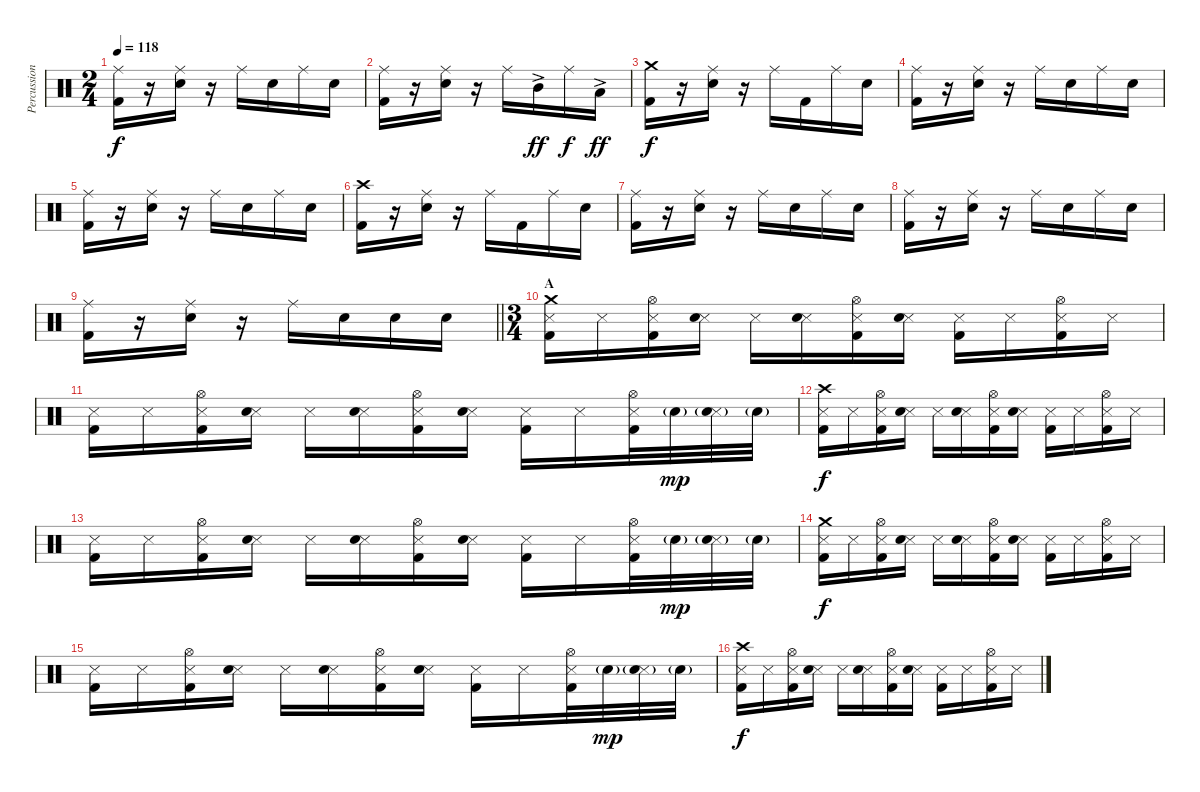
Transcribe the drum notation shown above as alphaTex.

\track ("Percussion" "Percussion") {instrument percussion}
\staff {score}
\articulation defaults
\ts (2 4)
\tempo 118
\clef neutral
\ks c
("Ride (middle)" "Kick (hit) 2").16{dy f} r.16 ("Ride (middle)" "Electric Snare (hit)").16 r.16 "Ride (middle)".16 "Electric Snare (hit)".16 "Ride (middle)".16 "Electric Snare (hit)".16 |
("Ride (middle)" "Kick (hit) 2").16 r.16 ("Ride (middle)" "Electric Snare (hit)").16 r.16 "Ride (middle)".16 "Mid Tom (hit)"{ac}.16{dy ff} "Ride (middle)".16{dy f} "Low Tom (hit)"{ac}.16{dy ff} |
("Crash medium (hit)" "Kick (hit) 2").16{dy f} r.16 ("Ride (middle)" "Electric Snare (hit)").16 r.16 "Ride (middle)".16 "Kick (hit) 2".16 "Ride (middle)".16 "Electric Snare (hit)".16 |
("Ride (middle)" "Kick (hit) 2").16 r.16 ("Ride (middle)" "Electric Snare (hit)").16 r.16 "Ride (middle)".16 "Electric Snare (hit)".16 "Ride (middle)".16 "Electric Snare (hit)".16 |
("Ride (middle)" "Kick (hit) 2").16 r.16 ("Ride (middle)" "Electric Snare (hit)").16 r.16 "Ride (middle)".16 "Electric Snare (hit)".16 "Ride (middle)".16 "Electric Snare (hit)".16 |
("Crash high (hit)" "Kick (hit) 2").16 r.16 ("Ride (middle)" "Electric Snare (hit)").16 r.16 "Ride (middle)".16 "Kick (hit) 2".16 "Ride (middle)".16 "Electric Snare (hit)".16 |
("Ride (middle)" "Kick (hit) 2").16 r.16 ("Ride (middle)" "Electric Snare (hit)").16 r.16 "Ride (middle)".16 "Electric Snare (hit)".16 "Ride (middle)".16 "Electric Snare (hit)".16 |
("Ride (middle)" "Kick (hit) 2").16 r.16 ("Ride (middle)" "Electric Snare (hit)").16 r.16 "Ride (middle)".16 "Electric Snare (hit)".16 "Ride (middle)".16 "Electric Snare (hit)".16 |
\barLineRight lightlight
("Ride (middle)" "Kick (hit) 2").16 r.16 ("Ride (middle)" "Electric Snare (hit)").16 r.16 "Ride (middle)".16 "Electric Snare (hit)".16 "Electric Snare (hit)".16 "Electric Snare (hit)".16 |
\ts (3 4)
\section ("" "A")
("Crash medium (hit)" "Snare (side stick) 3" "Kick (hit) 2").16 "Snare (side stick) 3".16 ("Hi-Hat (open)" "Snare (side stick) 3" "Kick (hit) 2").16 ("Snare (side stick) 3" "Electric Snare (hit)").16 "Snare (side stick) 3".16 ("Snare (side stick) 3" "Electric Snare (hit)").16 ("Hi-Hat (open)" "Snare (side stick) 3" "Kick (hit) 2").16 ("Snare (side stick) 3" "Electric Snare (hit)").16 ("Snare (side stick) 3" "Kick (hit) 2").16 "Snare (side stick) 3".16 ("Hi-Hat (open)" "Snare (side stick) 3" "Kick (hit) 2").16 "Snare (side stick) 3".16 |
("Snare (side stick) 3" "Kick (hit) 2").16 "Snare (side stick) 3".16 ("Hi-Hat (open)" "Snare (side stick) 3" "Kick (hit) 2").16 ("Snare (side stick) 3" "Electric Snare (hit)").16 "Snare (side stick) 3".16 ("Snare (side stick) 3" "Electric Snare (hit)").16 ("Hi-Hat (open)" "Snare (side stick) 3" "Kick (hit) 2").16 ("Snare (side stick) 3" "Electric Snare (hit)").16 ("Snare (side stick) 3" "Kick (hit) 2").16 "Snare (side stick) 3".16 ("Hi-Hat (open)" "Snare (side stick) 3" "Kick (hit) 2").32 "Electric Snare (hit)"{g}.32{dy mp} ("Snare (side stick) 3" "Electric Snare (hit)"{g}).32 "Electric Snare (hit)"{g}.32 |
("Crash high (hit)" "Snare (side stick) 3" "Kick (hit) 2").16{dy f} "Snare (side stick) 3".16 ("Hi-Hat (open)" "Snare (side stick) 3" "Kick (hit) 2").16 ("Snare (side stick) 3" "Electric Snare (hit)").16 "Snare (side stick) 3".16 ("Snare (side stick) 3" "Electric Snare (hit)").16 ("Hi-Hat (open)" "Snare (side stick) 3" "Kick (hit) 2").16 ("Snare (side stick) 3" "Electric Snare (hit)").16 ("Snare (side stick) 3" "Kick (hit) 2").16 "Snare (side stick) 3".16 ("Hi-Hat (open)" "Snare (side stick) 3" "Kick (hit) 2").16 "Snare (side stick) 3".16 |
("Snare (side stick) 3" "Kick (hit) 2").16 "Snare (side stick) 3".16 ("Hi-Hat (open)" "Snare (side stick) 3" "Kick (hit) 2").16 ("Snare (side stick) 3" "Electric Snare (hit)").16 "Snare (side stick) 3".16 ("Snare (side stick) 3" "Electric Snare (hit)").16 ("Hi-Hat (open)" "Snare (side stick) 3" "Kick (hit) 2").16 ("Snare (side stick) 3" "Electric Snare (hit)").16 ("Snare (side stick) 3" "Kick (hit) 2").16 "Snare (side stick) 3".16 ("Hi-Hat (open)" "Snare (side stick) 3" "Kick (hit) 2").32 "Electric Snare (hit)"{g}.32{dy mp} ("Snare (side stick) 3" "Electric Snare (hit)"{g}).32 "Electric Snare (hit)"{g}.32 |
("Crash medium (hit)" "Snare (side stick) 3" "Kick (hit) 2").16{dy f} "Snare (side stick) 3".16 ("Hi-Hat (open)" "Snare (side stick) 3" "Kick (hit) 2").16 ("Snare (side stick) 3" "Electric Snare (hit)").16 "Snare (side stick) 3".16 ("Snare (side stick) 3" "Electric Snare (hit)").16 ("Hi-Hat (open)" "Snare (side stick) 3" "Kick (hit) 2").16 ("Snare (side stick) 3" "Electric Snare (hit)").16 ("Snare (side stick) 3" "Kick (hit) 2").16 "Snare (side stick) 3".16 ("Hi-Hat (open)" "Snare (side stick) 3" "Kick (hit) 2").16 "Snare (side stick) 3".16 |
("Snare (side stick) 3" "Kick (hit) 2").16 "Snare (side stick) 3".16 ("Hi-Hat (open)" "Snare (side stick) 3" "Kick (hit) 2").16 ("Snare (side stick) 3" "Electric Snare (hit)").16 "Snare (side stick) 3".16 ("Snare (side stick) 3" "Electric Snare (hit)").16 ("Hi-Hat (open)" "Snare (side stick) 3" "Kick (hit) 2").16 ("Snare (side stick) 3" "Electric Snare (hit)").16 ("Snare (side stick) 3" "Kick (hit) 2").16 "Snare (side stick) 3".16 ("Hi-Hat (open)" "Snare (side stick) 3" "Kick (hit) 2").32 "Electric Snare (hit)"{g}.32{dy mp} ("Snare (side stick) 3" "Electric Snare (hit)"{g}).32 "Electric Snare (hit)"{g}.32 |
("Crash high (hit)" "Snare (side stick) 3" "Kick (hit) 2").16{dy f} "Snare (side stick) 3".16 ("Hi-Hat (open)" "Snare (side stick) 3" "Kick (hit) 2").16 ("Snare (side stick) 3" "Electric Snare (hit)").16 "Snare (side stick) 3".16 ("Snare (side stick) 3" "Electric Snare (hit)").16 ("Hi-Hat (open)" "Snare (side stick) 3" "Kick (hit) 2").16 ("Snare (side stick) 3" "Electric Snare (hit)").16 ("Snare (side stick) 3" "Kick (hit) 2").16 "Snare (side stick) 3".16 ("Hi-Hat (open)" "Snare (side stick) 3" "Kick (hit) 2").16 "Snare (side stick) 3".16
